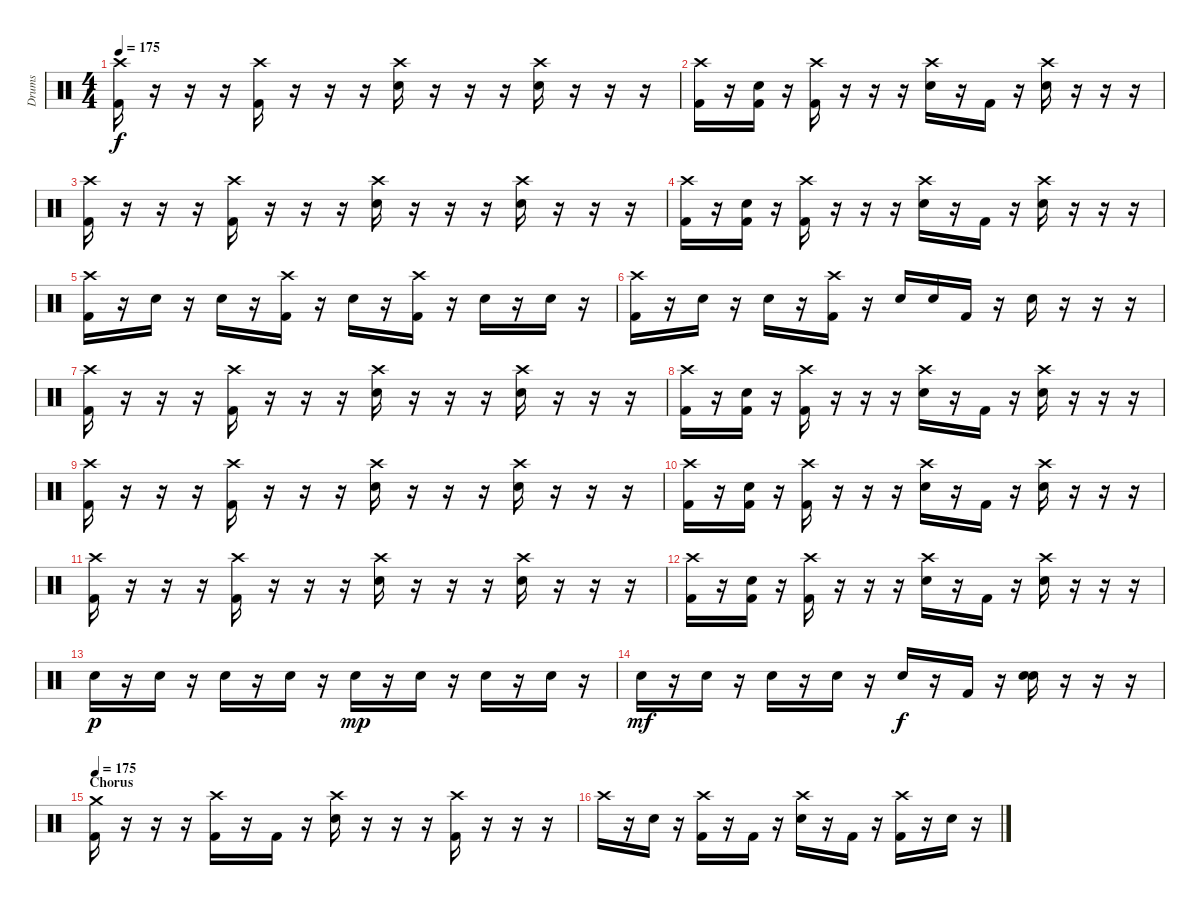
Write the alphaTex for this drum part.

\track ("Drums" "Drums") {instrument percussion}
\staff {score}
\articulation defaults
\ts (4 4)
\tempo 175
\clef neutral
\ks c
("Crash high (hit)" "Kick (hit) 2").16{dy f} r.16 r.16 r.16 ("Crash high (hit)" "Kick (hit) 2").16 r.16 r.16 r.16 ("Crash high (hit)" "Snare (hit) 2").16 r.16 r.16 r.16 ("Crash high (hit)" "Snare (hit) 2").16 r.16 r.16 r.16 |
("Crash high (hit)" "Kick (hit) 2").16 r.16 ("Snare (hit) 2" "Kick (hit) 2").16 r.16 ("Crash high (hit)" "Kick (hit) 2").16 r.16 r.16 r.16 ("Crash high (hit)" "Snare (hit) 2").16 r.16 "Kick (hit) 2".16 r.16 ("Crash high (hit)" "Snare (hit) 2").16 r.16 r.16 r.16 |
("Crash high (hit)" "Kick (hit) 2").16 r.16 r.16 r.16 ("Crash high (hit)" "Kick (hit) 2").16 r.16 r.16 r.16 ("Crash high (hit)" "Snare (hit) 2").16 r.16 r.16 r.16 ("Crash high (hit)" "Snare (hit) 2").16 r.16 r.16 r.16 |
("Crash high (hit)" "Kick (hit) 2").16 r.16 ("Snare (hit) 2" "Kick (hit) 2").16 r.16 ("Crash high (hit)" "Kick (hit) 2").16 r.16 r.16 r.16 ("Crash high (hit)" "Snare (hit) 2").16 r.16 "Kick (hit) 2".16 r.16 ("Crash high (hit)" "Snare (hit) 2").16 r.16 r.16 r.16 |
("Crash high (hit)" "Kick (hit) 2").16 r.16 "Snare (hit) 2".16 r.16 "Snare (hit) 2".16 r.16 ("Crash high (hit)" "Kick (hit) 2").16 r.16 "Snare (hit) 2".16 r.16 ("Crash high (hit)" "Kick (hit) 2").16 r.16 "Snare (hit) 2".16 r.16 "Snare (hit) 2".16 r.16 |
("Crash high (hit)" "Kick (hit) 2").16 r.16 "Snare (hit) 2".16 r.16 "Snare (hit) 2".16 r.16 ("Crash high (hit)" "Kick (hit) 2").16 r.16 "Snare (hit) 2".16 "Snare (hit) 2".16 "Kick (hit) 2".16 r.16 "Snare (hit) 2".16 r.16 r.16 r.16 |
("Crash high (hit)" "Kick (hit) 2").16 r.16 r.16 r.16 ("Crash high (hit)" "Kick (hit) 2").16 r.16 r.16 r.16 ("Crash high (hit)" "Snare (hit) 2").16 r.16 r.16 r.16 ("Crash high (hit)" "Snare (hit) 2").16 r.16 r.16 r.16 |
("Crash high (hit)" "Kick (hit) 2").16 r.16 ("Snare (hit) 2" "Kick (hit) 2").16 r.16 ("Crash high (hit)" "Kick (hit) 2").16 r.16 r.16 r.16 ("Crash high (hit)" "Snare (hit) 2").16 r.16 "Kick (hit) 2".16 r.16 ("Crash high (hit)" "Snare (hit) 2").16 r.16 r.16 r.16 |
("Crash high (hit)" "Kick (hit) 2").16 r.16 r.16 r.16 ("Crash high (hit)" "Kick (hit) 2").16 r.16 r.16 r.16 ("Crash high (hit)" "Snare (hit) 2").16 r.16 r.16 r.16 ("Crash high (hit)" "Snare (hit) 2").16 r.16 r.16 r.16 |
("Crash high (hit)" "Kick (hit) 2").16 r.16 ("Snare (hit) 2" "Kick (hit) 2").16 r.16 ("Crash high (hit)" "Kick (hit) 2").16 r.16 r.16 r.16 ("Crash high (hit)" "Snare (hit) 2").16 r.16 "Kick (hit) 2".16 r.16 ("Crash high (hit)" "Snare (hit) 2").16 r.16 r.16 r.16 |
("Crash high (hit)" "Kick (hit) 2").16 r.16 r.16 r.16 ("Crash high (hit)" "Kick (hit) 2").16 r.16 r.16 r.16 ("Crash high (hit)" "Snare (hit) 2").16 r.16 r.16 r.16 ("Crash high (hit)" "Snare (hit) 2").16 r.16 r.16 r.16 |
("Crash high (hit)" "Kick (hit) 2").16 r.16 ("Snare (hit) 2" "Kick (hit) 2").16 r.16 ("Crash high (hit)" "Kick (hit) 2").16 r.16 r.16 r.16 ("Crash high (hit)" "Snare (hit) 2").16 r.16 "Kick (hit) 2".16 r.16 ("Crash high (hit)" "Snare (hit) 2").16 r.16 r.16 r.16 |
"Snare (hit) 2".16{dy p} r.16 "Snare (hit) 2".16 r.16 "Snare (hit) 2".16 r.16 "Snare (hit) 2".16 r.16 "Snare (hit) 2".16{dy mp} r.16 "Snare (hit) 2".16 r.16 "Snare (hit) 2".16 r.16 "Snare (hit) 2".16 r.16 |
"Snare (hit) 2".16{dy mf} r.16 "Snare (hit) 2".16 r.16 "Snare (hit) 2".16 r.16 "Snare (hit) 2".16 r.16 "Snare (hit) 2".16{dy f} r.16 "Kick (hit) 2".16 r.16 ("Snare (hit) 2" "Snare (hit) 2").16 r.16 r.16 r.16 |
\section ("" "Chorus")
\tempo 175
("Crash medium (hit)" "Kick (hit) 2").16 r.16 r.16 r.16 ("Crash high (hit)" "Kick (hit) 2").16 r.16 "Kick (hit) 2".16 r.16 ("Crash high (hit)" "Snare (hit) 2").16 r.16 r.16 r.16 ("Crash high (hit)" "Kick (hit) 2").16 r.16 r.16 r.16 |
"Crash high (hit)".16 r.16 "Snare (hit) 2".16 r.16 ("Crash high (hit)" "Kick (hit) 2").16 r.16 "Kick (hit) 2".16 r.16 ("Crash high (hit)" "Snare (hit) 2").16 r.16 "Kick (hit) 2".16 r.16 ("Crash high (hit)" "Kick (hit) 2").16 r.16 "Snare (hit) 2".16 r.16
